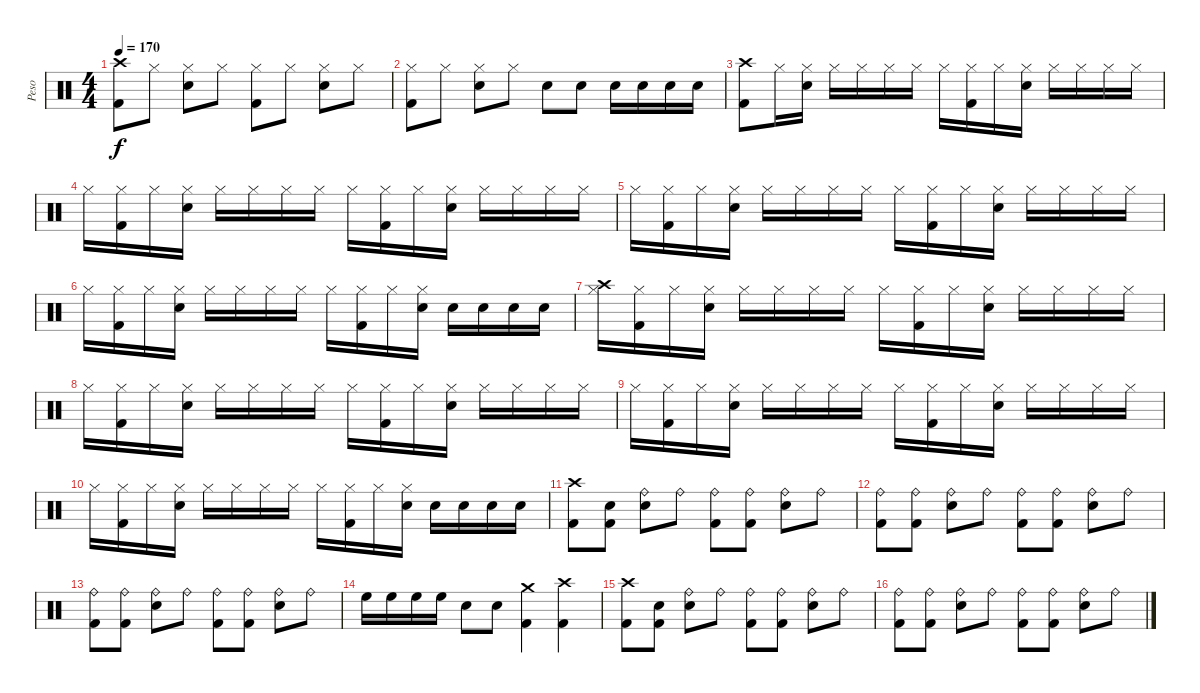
\track ("Peso" "Peso") {instrument percussion}
\staff {score}
\articulation defaults
\ts (4 4)
\tempo 170
\clef neutral
\ks c
("Crash high (hit)" "Kick (hit) 2").8{dy f} "Hi-Hat (closed)".8 ("Hi-Hat (closed)" "Snare (hit) 2").8 "Hi-Hat (closed)".8 ("Hi-Hat (closed)" "Kick (hit) 2").8 "Hi-Hat (closed)".8 ("Hi-Hat (closed)" "Snare (hit) 2").8 "Hi-Hat (closed)".8 |
("Hi-Hat (closed)" "Kick (hit) 2").8 "Hi-Hat (closed)".8 ("Hi-Hat (closed)" "Snare (hit) 2").8 "Hi-Hat (closed)".8 "Snare (hit) 2".8 "Snare (hit) 2".8 "Snare (hit) 2".16 "Snare (hit) 2".16 "Snare (hit) 2".16 "Snare (hit) 2".16 |
("Crash high (hit)" "Kick (hit) 2").8 "Hi-Hat (closed)"{x}.16 ("Hi-Hat (closed)" "Snare (hit) 2").16 "Hi-Hat (closed)"{x}.16 "Hi-Hat (closed)".16 "Hi-Hat (closed)"{x}.16 "Hi-Hat (closed)".16 "Hi-Hat (closed)"{x}.16 ("Hi-Hat (closed)" "Kick (hit) 2").16 "Hi-Hat (closed)"{x}.16 ("Hi-Hat (closed)" "Snare (hit) 2").16 "Hi-Hat (closed)"{x}.16 "Hi-Hat (closed)".16 "Hi-Hat (closed)"{x}.16 "Hi-Hat (closed)".16 |
"Hi-Hat (closed)"{x}.16 ("Hi-Hat (closed)" "Kick (hit) 2").16 "Hi-Hat (closed)"{x}.16 ("Hi-Hat (closed)" "Snare (hit) 2").16 "Hi-Hat (closed)"{x}.16 "Hi-Hat (closed)".16 "Hi-Hat (closed)"{x}.16 "Hi-Hat (closed)".16 "Hi-Hat (closed)"{x}.16 ("Hi-Hat (closed)" "Kick (hit) 2").16 "Hi-Hat (closed)"{x}.16 ("Hi-Hat (closed)" "Snare (hit) 2").16 "Hi-Hat (closed)"{x}.16 "Hi-Hat (closed)".16 "Hi-Hat (closed)"{x}.16 "Hi-Hat (closed)".16 |
"Hi-Hat (closed)"{x}.16 ("Hi-Hat (closed)" "Kick (hit) 2").16 "Hi-Hat (closed)"{x}.16 ("Hi-Hat (closed)" "Snare (hit) 2").16 "Hi-Hat (closed)"{x}.16 "Hi-Hat (closed)".16 "Hi-Hat (closed)"{x}.16 "Hi-Hat (closed)".16 "Hi-Hat (closed)"{x}.16 ("Hi-Hat (closed)" "Kick (hit) 2").16 "Hi-Hat (closed)"{x}.16 ("Hi-Hat (closed)" "Snare (hit) 2").16 "Hi-Hat (closed)"{x}.16 "Hi-Hat (closed)".16 "Hi-Hat (closed)"{x}.16 "Hi-Hat (closed)".16 |
"Hi-Hat (closed)"{x}.16 ("Hi-Hat (closed)" "Kick (hit) 2").16 "Hi-Hat (closed)"{x}.16 ("Hi-Hat (closed)" "Snare (hit) 2").16 "Hi-Hat (closed)"{x}.16 "Hi-Hat (closed)".16 "Hi-Hat (closed)"{x}.16 "Hi-Hat (closed)".16 "Hi-Hat (closed)"{x}.16 ("Hi-Hat (closed)" "Kick (hit) 2").16 "Hi-Hat (closed)"{x}.16 ("Hi-Hat (closed)" "Snare (hit) 2").16 "Snare (hit) 2".16 "Snare (hit) 2".16 "Snare (hit) 2".16 "Snare (hit) 2".16 |
("Crash high (hit)" "Hi-Hat (closed)"{x}).16 ("Hi-Hat (closed)" "Kick (hit) 2").16 "Hi-Hat (closed)"{x}.16 ("Hi-Hat (closed)" "Snare (hit) 2").16 "Hi-Hat (closed)"{x}.16 "Hi-Hat (closed)".16 "Hi-Hat (closed)"{x}.16 "Hi-Hat (closed)".16 "Hi-Hat (closed)"{x}.16 ("Hi-Hat (closed)" "Kick (hit) 2").16 "Hi-Hat (closed)"{x}.16 ("Hi-Hat (closed)" "Snare (hit) 2").16 "Hi-Hat (closed)"{x}.16 "Hi-Hat (closed)".16 "Hi-Hat (closed)"{x}.16 "Hi-Hat (closed)".16 |
"Hi-Hat (closed)"{x}.16 ("Hi-Hat (closed)" "Kick (hit) 2").16 "Hi-Hat (closed)"{x}.16 ("Hi-Hat (closed)" "Snare (hit) 2").16 "Hi-Hat (closed)"{x}.16 "Hi-Hat (closed)".16 "Hi-Hat (closed)"{x}.16 "Hi-Hat (closed)".16 "Hi-Hat (closed)"{x}.16 ("Hi-Hat (closed)" "Kick (hit) 2").16 "Hi-Hat (closed)"{x}.16 ("Hi-Hat (closed)" "Snare (hit) 2").16 "Hi-Hat (closed)"{x}.16 "Hi-Hat (closed)".16 "Hi-Hat (closed)"{x}.16 "Hi-Hat (closed)".16 |
"Hi-Hat (closed)"{x}.16 ("Hi-Hat (closed)" "Kick (hit) 2").16 "Hi-Hat (closed)"{x}.16 ("Hi-Hat (closed)" "Snare (hit) 2").16 "Hi-Hat (closed)"{x}.16 "Hi-Hat (closed)".16 "Hi-Hat (closed)"{x}.16 "Hi-Hat (closed)".16 "Hi-Hat (closed)"{x}.16 ("Hi-Hat (closed)" "Kick (hit) 2").16 "Hi-Hat (closed)"{x}.16 ("Hi-Hat (closed)" "Snare (hit) 2").16 "Hi-Hat (closed)"{x}.16 "Hi-Hat (closed)".16 "Hi-Hat (closed)"{x}.16 "Hi-Hat (closed)".16 |
"Hi-Hat (closed)"{x}.16 ("Hi-Hat (closed)" "Kick (hit) 2").16 "Hi-Hat (closed)"{x}.16 ("Hi-Hat (closed)" "Snare (hit) 2").16 "Hi-Hat (closed)"{x}.16 "Hi-Hat (closed)".16 "Hi-Hat (closed)"{x}.16 "Hi-Hat (closed)".16 "Hi-Hat (closed)"{x}.16 ("Hi-Hat (closed)" "Kick (hit) 2").16 "Hi-Hat (closed)"{x}.16 ("Hi-Hat (closed)" "Snare (hit) 2").16 "Snare (hit) 2".16 "Snare (hit) 2".16 "Snare (hit) 2".16 "Snare (hit) 2".16 |
("Crash high (hit)" "Kick (hit) 2").8 ("Snare (hit)"{x} "Kick (hit) 2").8 ("Ride (bell)" "Snare (hit) 2").8 "Ride (bell)"{x}.8 ("Ride (bell)" "Kick (hit) 2").8 ("Ride (bell)"{x} "Kick (hit) 2").8 ("Ride (bell)" "Snare (hit) 2").8 "Ride (bell)"{x}.8 |
("Ride (bell)" "Kick (hit) 2").8 ("Ride (bell)"{x} "Kick (hit) 2").8 ("Ride (bell)" "Snare (hit) 2").8 "Ride (bell)"{x}.8 ("Ride (bell)" "Kick (hit) 2").8 ("Ride (bell)"{x} "Kick (hit) 2").8 ("Ride (bell)" "Snare (hit) 2").8 "Ride (bell)"{x}.8 |
("Ride (bell)" "Kick (hit) 2").8 ("Ride (bell)"{x} "Kick (hit) 2").8 ("Ride (bell)" "Snare (hit) 2").8 "Ride (bell)"{x}.8 ("Ride (bell)" "Kick (hit) 2").8 ("Ride (bell)"{x} "Kick (hit) 2").8 ("Ride (bell)" "Snare (hit) 2").8 "Ride (bell)"{x}.8 |
"High Floor Tom (hit)"{x}.16 "High Floor Tom (hit)".16 "High Floor Tom (hit)".16 "High Floor Tom (hit)"{x}.16 "Snare (hit) 2".8 "Snare (hit) 2".8 ("Crash medium (hit)" "Kick (hit) 2").4 ("Crash high (hit)" "Kick (hit) 2").4 |
("Crash high (hit)" "Kick (hit) 2").8 ("Snare (hit)"{x} "Kick (hit) 2").8 ("Ride (bell)" "Snare (hit) 2").8 "Ride (bell)"{x}.8 ("Ride (bell)" "Kick (hit) 2").8 ("Ride (bell)"{x} "Kick (hit) 2").8 ("Ride (bell)" "Snare (hit) 2").8 "Ride (bell)"{x}.8 |
("Ride (bell)" "Kick (hit) 2").8 ("Ride (bell)"{x} "Kick (hit) 2").8 ("Ride (bell)" "Snare (hit) 2").8 "Ride (bell)"{x}.8 ("Ride (bell)" "Kick (hit) 2").8 ("Ride (bell)"{x} "Kick (hit) 2").8 ("Ride (bell)" "Snare (hit) 2").8 "Ride (bell)"{x}.8
